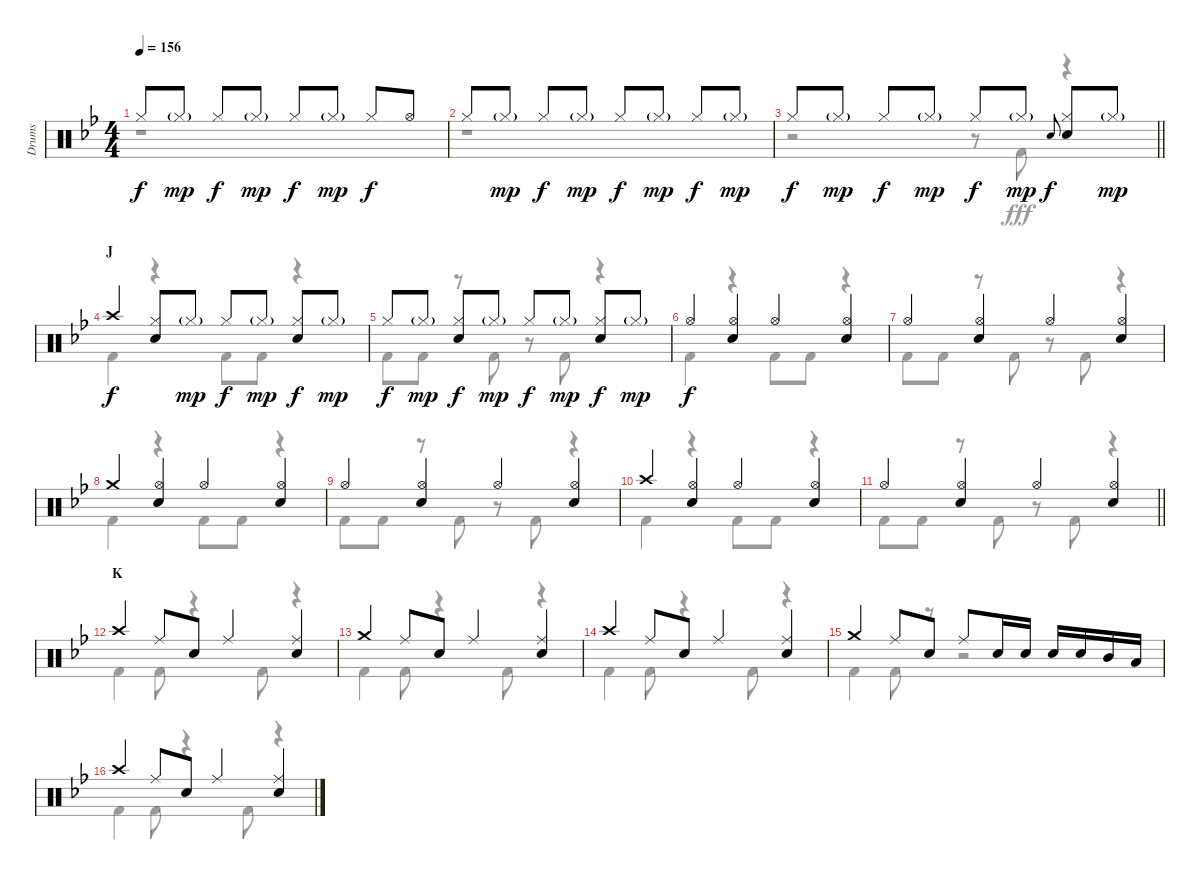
\track ("Drums" "Drums") {instrument percussion}
\staff {score}
\articulation defaults
\voice
\ts (4 4)
\tempo 156
\clef neutral
\ks bb "Hi-Hat (closed)".8{dy f} "Hi-Hat (closed)"{g}.8{dy mp} "Hi-Hat (closed)".8{dy f} "Hi-Hat (closed)"{g}.8{dy mp} "Hi-Hat (closed)".8{dy f} "Hi-Hat (closed)"{g}.8{dy mp} "Hi-Hat (closed)".8{dy f} "Hi-Hat (open)".8
|
"Hi-Hat (closed)".8 "Hi-Hat (closed)"{g}.8{dy mp} "Hi-Hat (closed)".8{dy f} "Hi-Hat (closed)"{g}.8{dy mp} "Hi-Hat (closed)".8{dy f} "Hi-Hat (closed)"{g}.8{dy mp} "Hi-Hat (closed)".8{dy f} "Hi-Hat (closed)"{g}.8{dy mp} |
\barLineRight lightlight "Hi-Hat (closed)".8{dy f} "Hi-Hat (closed)"{g}.8{dy mp} "Hi-Hat (closed)".8{dy f} "Hi-Hat (closed)"{g}.8{dy mp} "Hi-Hat (closed)".8{dy f} "Hi-Hat (closed)"{g}.8{dy mp} "Snare (hit) 2".8{gr onbeat dy f}
("Hi-Hat (closed)" "Snare (hit) 2").8 "Hi-Hat (closed)"{g}.8{dy mp} |
\section ("" "J")
"Crash high (hit)".4{dy f} ("Hi-Hat (closed)" "Snare (hit) 2").8 "Hi-Hat (closed)"{g}.8{dy mp} "Hi-Hat (closed)".8{dy f} "Hi-Hat (closed)"{g}.8{dy mp} ("Hi-Hat (closed)" "Snare (hit) 2").8{dy f} "Hi-Hat (closed)"{g}.8{dy mp} |
"Hi-Hat (closed)".8{dy f} "Hi-Hat (closed)"{g}.8{dy mp} ("Hi-Hat (closed)" "Snare (hit) 2").8{dy f} "Hi-Hat (closed)"{g}.8{dy mp} "Hi-Hat (closed)".8{dy f} "Hi-Hat (closed)"{g}.8{dy mp} ("Hi-Hat (closed)" "Snare (hit) 2").8{dy f} "Hi-Hat (closed)"{g}.8{dy mp} |
"Hi-Hat (open)".4{dy f} ("Hi-Hat (open)" "Snare (hit) 2").4 "Hi-Hat (open)".4 ("Hi-Hat (open)" "Snare (hit) 2").4 |
"Hi-Hat (open)".4 ("Hi-Hat (open)" "Snare (hit) 2").4 "Hi-Hat (open)".4 ("Hi-Hat (open)" "Snare (hit) 2").4 |
"Crash medium (hit)".4 ("Hi-Hat (open)" "Snare (hit) 2").4 "Hi-Hat (open)".4 ("Hi-Hat (open)" "Snare (hit) 2").4 |
"Hi-Hat (open)".4 ("Hi-Hat (open)" "Snare (hit) 2").4 "Hi-Hat (open)".4 ("Hi-Hat (open)" "Snare (hit) 2").4 |
"Crash high (hit)".4 ("Hi-Hat (open)" "Snare (hit) 2").4 "Hi-Hat (open)".4 ("Hi-Hat (open)" "Snare (hit) 2").4 |
\barLineRight lightlight "Hi-Hat (open)".4
("Hi-Hat (open)" "Snare (hit) 2").4 "Hi-Hat (open)".4 ("Hi-Hat (open)" "Snare (hit) 2").4 |
\section ("" "K")
"Crash high (hit)".4 "Ride (middle)".8 "Snare (hit) 2".8 "Ride (middle)".4 ("Ride (middle)" "Snare (hit) 2").4 |
"Crash medium (hit)".4 "Ride (middle)".8 "Snare (hit) 2".8 "Ride (middle)".4 ("Ride (middle)" "Snare (hit) 2").4 |
"Crash high (hit)".4 "Ride (middle)".8 "Snare (hit) 2".8 "Ride (middle)".4 ("Ride (middle)" "Snare (hit) 2").4 |
"Crash medium (hit)".4 "Ride (middle)".8 "Snare (hit) 2".8 "Ride (middle)".8 "Snare (hit) 2".16 "Snare (hit) 2".16 "Snare (hit) 2".16 "Snare (hit) 2".16 "Mid Tom (hit)".16 "Low Tom (hit)".16 |
"Crash high (hit)".4 "Ride (middle)".8 "Snare (hit) 2".8 "Ride (middle)".4 ("Ride (middle)" "Snare (hit) 2").4
\voice
\clef neutral
\ottava regular
\simile none
\ks bb
r.1{dy fff} |
r.1 |
\barLineRight lightlight
r.2 r.8 "Kick (hit) 2".8 r.4 |
"Kick (hit) 2".4 r.4 "Kick (hit) 2".8 "Kick (hit) 2".8 r.4 |
"Kick (hit) 2".8 "Kick (hit) 2".8 r.8 "Kick (hit) 2".8 r.8 "Kick (hit) 2".8 r.4 |
"Kick (hit) 2".4 r.4 "Kick (hit) 2".8 "Kick (hit) 2".8 r.4 |
"Kick (hit) 2".8 "Kick (hit) 2".8 r.8 "Kick (hit) 2".8 r.8 "Kick (hit) 2".8 r.4 |
"Kick (hit) 2".4 r.4 "Kick (hit) 2".8 "Kick (hit) 2".8 r.4 |
"Kick (hit) 2".8 "Kick (hit) 2".8 r.8 "Kick (hit) 2".8 r.8 "Kick (hit) 2".8 r.4 |
"Kick (hit) 2".4 r.4 "Kick (hit) 2".8 "Kick (hit) 2".8 r.4 |
\barLineRight lightlight "Kick (hit) 2".8 "Kick (hit) 2".8
r.8 "Kick (hit) 2".8 r.8 "Kick (hit) 2".8 r.4 |
"Kick (hit) 2".4 "Kick (hit) 2".8 r.4 "Kick (hit) 2".8 r.4 |
"Kick (hit) 2".4 "Kick (hit) 2".8 r.4 "Kick (hit) 2".8 r.4 |
"Kick (hit) 2".4 "Kick (hit) 2".8 r.4 "Kick (hit) 2".8 r.4 |
"Kick (hit) 2".4 "Kick (hit) 2".8 r.8 r.2 |
"Kick (hit) 2".4 "Kick (hit) 2".8 r.4 "Kick (hit) 2".8 r.4
